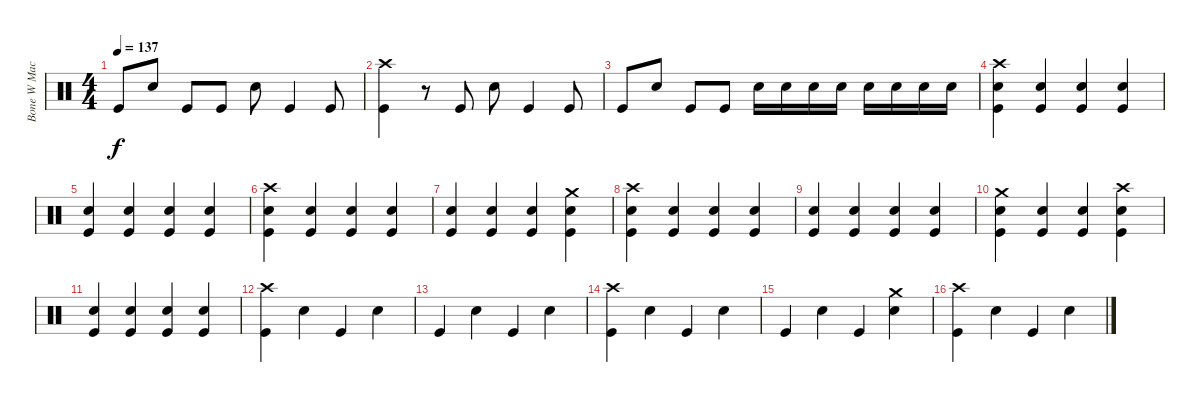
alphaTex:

\track ("Bone W Machine Drums" "Bone W Mac") {instrument percussion}
\staff {score}
\articulation defaults
\ts (4 4)
\tempo 137
\clef neutral
\ks c "Kick (hit)".8{dy f} "Snare (hit) 2".8 "Kick (hit)".8 "Kick (hit)".8 "Snare (hit) 2".8 "Kick (hit)".4 "Kick (hit)".8
|
("Crash high (hit)" "Kick (hit)").4 r.8 "Kick (hit)".8 "Snare (hit) 2".8 "Kick (hit)".4 "Kick (hit)".8 |
"Kick (hit)".8 "Snare (hit) 2".8 "Kick (hit)".8 "Kick (hit)".8 "Snare (hit) 2".16 "Snare (hit) 2".16 "Snare (hit) 2".16 "Snare (hit) 2".16 "Snare (hit) 2".16 "Snare (hit) 2".16 "Snare (hit) 2".16 "Snare (hit) 2".16 |
("Crash high (hit)" "Snare (hit) 2" "Kick (hit)").4 ("Snare (hit) 2" "Kick (hit)").4 ("Snare (hit) 2" "Kick (hit)").4 ("Snare (hit) 2" "Kick (hit)").4 |
("Snare (hit) 2" "Kick (hit)").4 ("Snare (hit) 2" "Kick (hit)").4 ("Snare (hit) 2" "Kick (hit)").4 ("Snare (hit) 2" "Kick (hit)").4 |
("Crash high (hit)" "Snare (hit) 2" "Kick (hit)").4 ("Snare (hit) 2" "Kick (hit)").4 ("Snare (hit) 2" "Kick (hit)").4 ("Snare (hit) 2" "Kick (hit)").4 |
("Snare (hit) 2" "Kick (hit)").4 ("Snare (hit) 2" "Kick (hit)").4 ("Snare (hit) 2" "Kick (hit)").4 ("Crash medium (hit)" "Snare (hit) 2" "Kick (hit)").4 |
("Crash high (hit)" "Snare (hit) 2" "Kick (hit)").4 ("Snare (hit) 2" "Kick (hit)").4 ("Snare (hit) 2" "Kick (hit)").4 ("Snare (hit) 2" "Kick (hit)").4 |
("Snare (hit) 2" "Kick (hit)").4 ("Snare (hit) 2" "Kick (hit)").4 ("Snare (hit) 2" "Kick (hit)").4 ("Snare (hit) 2" "Kick (hit)").4 |
("Crash medium (hit)" "Snare (hit) 2" "Kick (hit)").4 ("Snare (hit) 2" "Kick (hit)").4 ("Snare (hit) 2" "Kick (hit)").4 ("Crash high (hit)" "Snare (hit) 2" "Kick (hit)").4 |
("Snare (hit) 2" "Kick (hit)").4 ("Snare (hit) 2" "Kick (hit)").4 ("Snare (hit) 2" "Kick (hit)").4 ("Snare (hit) 2" "Kick (hit)").4 |
("Crash high (hit)" "Kick (hit)").4 "Snare (hit) 2".4 "Kick (hit)".4 "Snare (hit) 2".4 |
"Kick (hit)".4 "Snare (hit) 2".4 "Kick (hit)".4 "Snare (hit) 2".4 |
("Crash high (hit)" "Kick (hit)").4 "Snare (hit) 2".4 "Kick (hit)".4 "Snare (hit) 2".4 |
"Kick (hit)".4 "Snare (hit) 2".4 "Kick (hit)".4 ("Crash medium (hit)" "Snare (hit) 2").4 |
("Crash high (hit)" "Kick (hit)").4 "Snare (hit) 2".4 "Kick (hit)".4 "Snare (hit) 2".4
